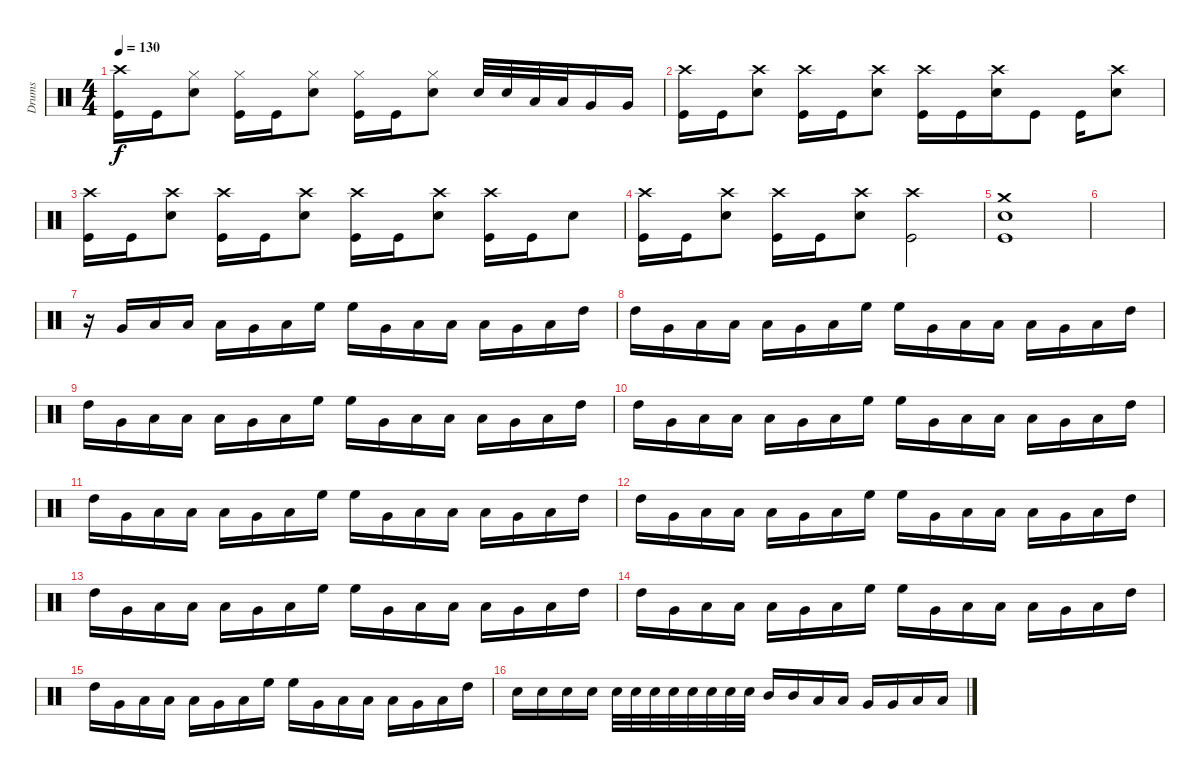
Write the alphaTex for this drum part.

\track ("Drums" "Drums") {instrument percussion}
\staff {score}
\articulation defaults
\ts (4 4)
\tempo 130
\clef neutral
\ks c
("Crash high (hit)" "Kick (hit)").16{dy f} "Kick (hit)".16 ("Hi-Hat (closed)" "Snare (hit) 2").8 ("Hi-Hat (closed)" "Kick (hit)").16 "Kick (hit)".16 ("Hi-Hat (closed)" "Snare (hit) 2").8 ("Hi-Hat (closed)" "Kick (hit)").16 "Kick (hit)".16 ("Hi-Hat (closed)" "Snare (hit) 2").8 "Snare (hit) 2".32 "Snare (hit) 2".32 "Low Tom (hit)".32 "Low Tom (hit)".32 "Very Low Tom (hit)".16 "Very Low Tom (hit)".16 |
("Crash high (hit)" "Kick (hit)").16 "Kick (hit)".16 ("Crash high (hit)" "Snare (hit) 2").8 ("Crash high (hit)" "Kick (hit)").16 "Kick (hit)".16 ("Crash high (hit)" "Snare (hit) 2").8 ("Crash high (hit)" "Kick (hit)").16 "Kick (hit)".16 ("Crash high (hit)" "Snare (hit) 2").16 "Kick (hit)".8 "Kick (hit)".16 ("Crash high (hit)" "Snare (hit) 2").8 |
("Crash high (hit)" "Kick (hit)").16 "Kick (hit)".16 ("Crash high (hit)" "Snare (hit) 2").8 ("Crash high (hit)" "Kick (hit)").16 "Kick (hit)".16 ("Crash high (hit)" "Snare (hit) 2").8 ("Crash high (hit)" "Kick (hit)").16 "Kick (hit)".16 ("Crash high (hit)" "Snare (hit) 2").8 ("Crash high (hit)" "Kick (hit)").16 "Kick (hit)".16 "Snare (hit) 2".8 |
("Crash high (hit)" "Kick (hit)").16 "Kick (hit)".16 ("Crash high (hit)" "Snare (hit) 2").8 ("Crash high (hit)" "Kick (hit)").16 "Kick (hit)".16 ("Crash high (hit)" "Snare (hit) 2").8 ("Crash high (hit)" "Kick (hit)").2 |
("Crash medium (hit)" "Snare (hit) 2" "Kick (hit)").1 |
|
r.16 "Very Low Tom (hit)".16 "Low Floor Tom (hit)".16 "Low Tom (hit)".16 "Low Tom (hit)".16 "Very Low Tom (hit)".16 "Low Floor Tom (hit)".16 "High Floor Tom (hit)".16 "High Floor Tom (hit)".16 "Very Low Tom (hit)".16 "Low Floor Tom (hit)".16 "Low Tom (hit)".16 "Low Tom (hit)".16 "Very Low Tom (hit)".16 "Low Floor Tom (hit)".16 "High Tom (hit)".16 |
"High Tom (hit)".16 "Very Low Tom (hit)".16 "Low Floor Tom (hit)".16 "Low Tom (hit)".16 "Low Tom (hit)".16 "Very Low Tom (hit)".16 "Low Floor Tom (hit)".16 "High Floor Tom (hit)".16 "High Floor Tom (hit)".16 "Very Low Tom (hit)".16 "Low Floor Tom (hit)".16 "Low Tom (hit)".16 "Low Tom (hit)".16 "Very Low Tom (hit)".16 "Low Floor Tom (hit)".16 "High Tom (hit)".16 |
"High Tom (hit)".16 "Very Low Tom (hit)".16 "Low Floor Tom (hit)".16 "Low Tom (hit)".16 "Low Tom (hit)".16 "Very Low Tom (hit)".16 "Low Floor Tom (hit)".16 "High Floor Tom (hit)".16 "High Floor Tom (hit)".16 "Very Low Tom (hit)".16 "Low Floor Tom (hit)".16 "Low Tom (hit)".16 "Low Tom (hit)".16 "Very Low Tom (hit)".16 "Low Floor Tom (hit)".16 "High Tom (hit)".16 |
"High Tom (hit)".16 "Very Low Tom (hit)".16 "Low Floor Tom (hit)".16 "Low Tom (hit)".16 "Low Tom (hit)".16 "Very Low Tom (hit)".16 "Low Floor Tom (hit)".16 "High Floor Tom (hit)".16 "High Floor Tom (hit)".16 "Very Low Tom (hit)".16 "Low Floor Tom (hit)".16 "Low Tom (hit)".16 "Low Tom (hit)".16 "Very Low Tom (hit)".16 "Low Floor Tom (hit)".16 "High Tom (hit)".16 |
"High Tom (hit)".16 "Very Low Tom (hit)".16 "Low Floor Tom (hit)".16 "Low Tom (hit)".16 "Low Tom (hit)".16 "Very Low Tom (hit)".16 "Low Floor Tom (hit)".16 "High Floor Tom (hit)".16 "High Floor Tom (hit)".16 "Very Low Tom (hit)".16 "Low Floor Tom (hit)".16 "Low Tom (hit)".16 "Low Tom (hit)".16 "Very Low Tom (hit)".16 "Low Floor Tom (hit)".16 "High Tom (hit)".16 |
"High Tom (hit)".16 "Very Low Tom (hit)".16 "Low Floor Tom (hit)".16 "Low Tom (hit)".16 "Low Tom (hit)".16 "Very Low Tom (hit)".16 "Low Floor Tom (hit)".16 "High Floor Tom (hit)".16 "High Floor Tom (hit)".16 "Very Low Tom (hit)".16 "Low Floor Tom (hit)".16 "Low Tom (hit)".16 "Low Tom (hit)".16 "Very Low Tom (hit)".16 "Low Floor Tom (hit)".16 "High Tom (hit)".16 |
"High Tom (hit)".16 "Very Low Tom (hit)".16 "Low Floor Tom (hit)".16 "Low Tom (hit)".16 "Low Tom (hit)".16 "Very Low Tom (hit)".16 "Low Floor Tom (hit)".16 "High Floor Tom (hit)".16 "High Floor Tom (hit)".16 "Very Low Tom (hit)".16 "Low Floor Tom (hit)".16 "Low Tom (hit)".16 "Low Tom (hit)".16 "Very Low Tom (hit)".16 "Low Floor Tom (hit)".16 "High Tom (hit)".16 |
"High Tom (hit)".16 "Very Low Tom (hit)".16 "Low Floor Tom (hit)".16 "Low Tom (hit)".16 "Low Tom (hit)".16 "Very Low Tom (hit)".16 "Low Floor Tom (hit)".16 "High Floor Tom (hit)".16 "High Floor Tom (hit)".16 "Very Low Tom (hit)".16 "Low Floor Tom (hit)".16 "Low Tom (hit)".16 "Low Tom (hit)".16 "Very Low Tom (hit)".16 "Low Floor Tom (hit)".16 "High Tom (hit)".16 |
"High Tom (hit)".16 "Very Low Tom (hit)".16 "Low Floor Tom (hit)".16 "Low Tom (hit)".16 "Low Tom (hit)".16 "Very Low Tom (hit)".16 "Low Floor Tom (hit)".16 "High Floor Tom (hit)".16 "High Floor Tom (hit)".16 "Very Low Tom (hit)".16 "Low Floor Tom (hit)".16 "Low Tom (hit)".16 "Low Tom (hit)".16 "Very Low Tom (hit)".16 "Low Floor Tom (hit)".16 "High Tom (hit)".16 |
"Snare (hit) 2".16 "Snare (hit) 2".16 "Snare (hit) 2".16 "Snare (hit) 2".16 "Snare (hit) 2".32 "Snare (hit) 2".32 "Snare (hit) 2".32 "Snare (hit) 2".32 "Snare (hit) 2".32 "Snare (hit) 2".32 "Snare (hit) 2".32 "Snare (hit) 2".32 "Mid Tom (hit)".16 "Mid Tom (hit)".16 "Low Tom (hit)".16 "Low Tom (hit)".16 "Very Low Tom (hit)".16 "Very Low Tom (hit)".16 "Low Floor Tom (hit)".16 "Low Floor Tom (hit)".16
